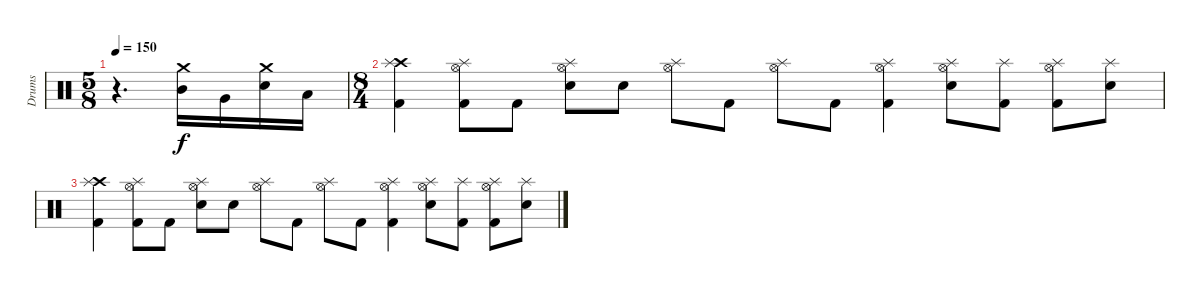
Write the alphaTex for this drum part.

\track ("Drums" "Drums") {instrument percussion}
\staff {score}
\articulation defaults
\ts (5 8)
\tempo 150
\clef neutral
\ks c
r.4{d dy f} ("Mid Tom (hit)" "Crash medium (hit)").16 "Very Low Tom (hit)".16 ("Electric Snare (hit)" "Crash medium (hit)").16 "Low Tom (hit)".16 |
\ts (8 4)
("Crash high (hit)" "Kick (hit) 2" "Splash (hit)").4 ("Hi-Hat (open)" "Kick (hit) 2" "Splash (hit)").8 "Kick (hit) 2".8 ("Hi-Hat (open)" "Electric Snare (hit)" "Splash (hit)").8 "Electric Snare (hit)".8 ("Hi-Hat (open)" "Splash (hit)").8 "Kick (hit) 2".8 ("Hi-Hat (open)" "Splash (hit)").8 "Kick (hit) 2".8 ("Hi-Hat (open)" "Kick (hit) 2" "Splash (hit)").4 ("Hi-Hat (open)" "Electric Snare (hit)" "Splash (hit)").8 ("Kick (hit) 2" "Splash (hit)").8 ("Hi-Hat (open)" "Kick (hit) 2" "Splash (hit)").8 ("Electric Snare (hit)" "Splash (hit)").8 |
("Crash high (hit)" "Kick (hit) 2" "Splash (hit)").4 ("Hi-Hat (open)" "Kick (hit) 2" "Splash (hit)").8 "Kick (hit) 2".8 ("Hi-Hat (open)" "Electric Snare (hit)" "Splash (hit)").8 "Electric Snare (hit)".8 ("Hi-Hat (open)" "Splash (hit)").8 "Kick (hit) 2".8 ("Hi-Hat (open)" "Splash (hit)").8 "Kick (hit) 2".8 ("Hi-Hat (open)" "Kick (hit) 2" "Splash (hit)").4 ("Hi-Hat (open)" "Electric Snare (hit)" "Splash (hit)").8 ("Kick (hit) 2" "Splash (hit)").8 ("Hi-Hat (open)" "Kick (hit) 2" "Splash (hit)").8 ("Electric Snare (hit)" "Splash (hit)").8
